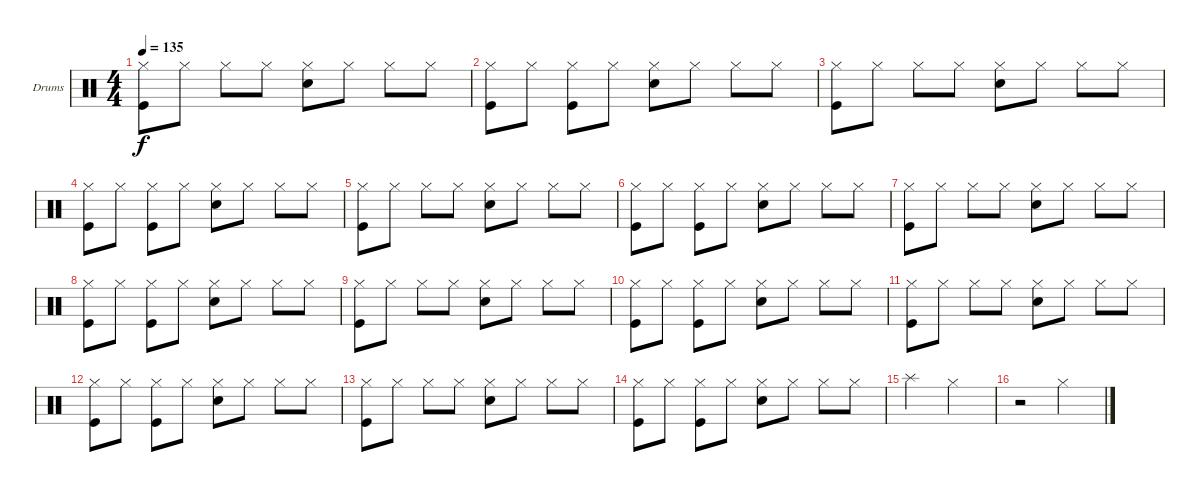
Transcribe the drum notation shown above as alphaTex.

\defaultSystemsLayout 4
\bracketExtendMode groupsimilarinstruments
\firstSystemTrackNameOrientation horizontal
\otherSystemsTrackNameOrientation horizontal
\track ("Drumkit" "Drums") {instrument percussion}
\staff {score}
\articulation defaults
\ts (4 4)
\tempo 135
\clef neutral
\ks c
("Kick (hit)" "Hi-Hat (closed)").8{dy f} "Hi-Hat (closed)".8 "Hi-Hat (closed)".8 "Hi-Hat (closed)".8 ("Hi-Hat (closed)" "Snare (hit) 2").8 "Hi-Hat (closed)".8 "Hi-Hat (closed)".8 "Hi-Hat (closed)".8 |
("Hi-Hat (closed)" "Kick (hit)").8 "Hi-Hat (closed)".8 ("Hi-Hat (closed)" "Kick (hit)").8 "Hi-Hat (closed)".8 ("Hi-Hat (closed)" "Snare (hit) 2").8 "Hi-Hat (closed)".8 "Hi-Hat (closed)".8 "Hi-Hat (closed)".8 |
("Kick (hit)" "Hi-Hat (closed)").8 "Hi-Hat (closed)".8 "Hi-Hat (closed)".8 "Hi-Hat (closed)".8 ("Hi-Hat (closed)" "Snare (hit) 2").8 "Hi-Hat (closed)".8 "Hi-Hat (closed)".8 "Hi-Hat (closed)".8 |
("Hi-Hat (closed)" "Kick (hit)").8 "Hi-Hat (closed)".8 ("Hi-Hat (closed)" "Kick (hit)").8 "Hi-Hat (closed)".8 ("Hi-Hat (closed)" "Snare (hit) 2").8 "Hi-Hat (closed)".8 "Hi-Hat (closed)".8 "Hi-Hat (closed)".8 |
("Kick (hit)" "Hi-Hat (closed)").8 "Hi-Hat (closed)".8 "Hi-Hat (closed)".8 "Hi-Hat (closed)".8 ("Hi-Hat (closed)" "Snare (hit) 2").8 "Hi-Hat (closed)".8 "Hi-Hat (closed)".8 "Hi-Hat (closed)".8 |
("Hi-Hat (closed)" "Kick (hit)").8 "Hi-Hat (closed)".8 ("Hi-Hat (closed)" "Kick (hit)").8 "Hi-Hat (closed)".8 ("Hi-Hat (closed)" "Snare (hit) 2").8 "Hi-Hat (closed)".8 "Hi-Hat (closed)".8 "Hi-Hat (closed)".8 |
("Kick (hit)" "Hi-Hat (closed)").8 "Hi-Hat (closed)".8 "Hi-Hat (closed)".8 "Hi-Hat (closed)".8 ("Hi-Hat (closed)" "Snare (hit) 2").8 "Hi-Hat (closed)".8 "Hi-Hat (closed)".8 "Hi-Hat (closed)".8 |
("Hi-Hat (closed)" "Kick (hit)").8 "Hi-Hat (closed)".8 ("Hi-Hat (closed)" "Kick (hit)").8 "Hi-Hat (closed)".8 ("Hi-Hat (closed)" "Snare (hit) 2").8 "Hi-Hat (closed)".8 "Hi-Hat (closed)".8 "Hi-Hat (closed)".8 |
("Kick (hit)" "Hi-Hat (closed)").8 "Hi-Hat (closed)".8 "Hi-Hat (closed)".8 "Hi-Hat (closed)".8 ("Hi-Hat (closed)" "Snare (hit) 2").8 "Hi-Hat (closed)".8 "Hi-Hat (closed)".8 "Hi-Hat (closed)".8 |
("Hi-Hat (closed)" "Kick (hit)").8 "Hi-Hat (closed)".8 ("Hi-Hat (closed)" "Kick (hit)").8 "Hi-Hat (closed)".8 ("Hi-Hat (closed)" "Snare (hit) 2").8 "Hi-Hat (closed)".8 "Hi-Hat (closed)".8 "Hi-Hat (closed)".8 |
("Kick (hit)" "Hi-Hat (closed)").8 "Hi-Hat (closed)".8 "Hi-Hat (closed)".8 "Hi-Hat (closed)".8 ("Hi-Hat (closed)" "Snare (hit) 2").8 "Hi-Hat (closed)".8 "Hi-Hat (closed)".8 "Hi-Hat (closed)".8 |
("Hi-Hat (closed)" "Kick (hit)").8 "Hi-Hat (closed)".8 ("Hi-Hat (closed)" "Kick (hit)").8 "Hi-Hat (closed)".8 ("Hi-Hat (closed)" "Snare (hit) 2").8 "Hi-Hat (closed)".8 "Hi-Hat (closed)".8 "Hi-Hat (closed)".8 |
("Kick (hit)" "Hi-Hat (closed)").8 "Hi-Hat (closed)".8 "Hi-Hat (closed)".8 "Hi-Hat (closed)".8 ("Hi-Hat (closed)" "Snare (hit) 2").8 "Hi-Hat (closed)".8 "Hi-Hat (closed)".8 "Hi-Hat (closed)".8 |
("Hi-Hat (closed)" "Kick (hit)").8 "Hi-Hat (closed)".8 ("Hi-Hat (closed)" "Kick (hit)").8 "Hi-Hat (closed)".8 ("Hi-Hat (closed)" "Snare (hit) 2").8 "Hi-Hat (closed)".8 "Hi-Hat (closed)".8 "Hi-Hat (closed)".8 |
"Splash (hit)".2 "Hi-Hat (closed)".2 |
r.2 "Hi-Hat (closed)".2
